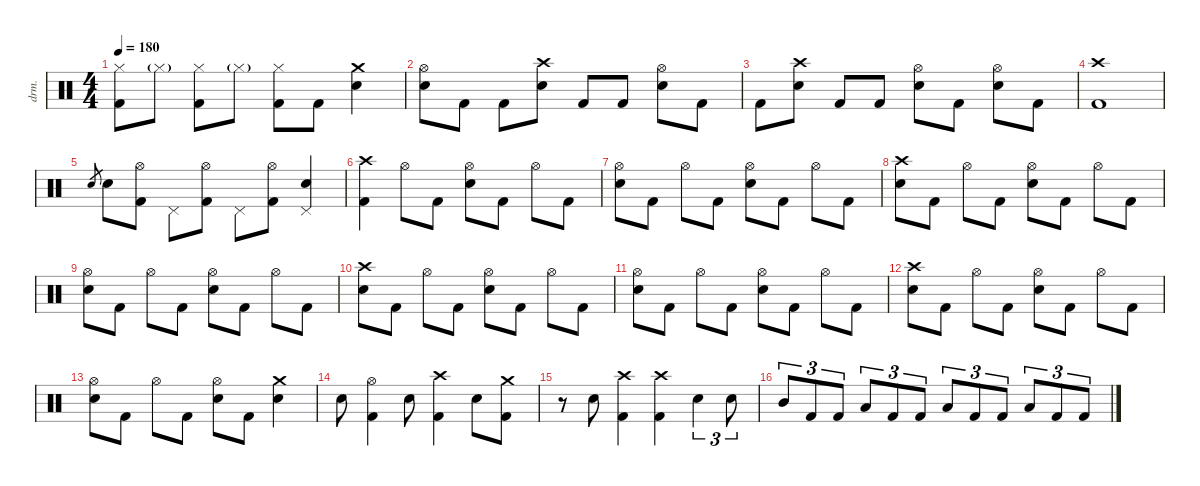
\defaultSystemsLayout 4
\hideDynamics
\bracketExtendMode nobrackets
\otherSystemsTrackNameOrientation horizontal
\track ("Drums: Ritsu Tainaka" "drm.") {instrument percussion}
\staff {score}
\articulation defaults
\ts (4 4)
\tempo 180
\clef neutral
\ks c
("Hi-Hat (closed)" "Kick (hit) 2").8{dy f beam Down} "Hi-Hat (closed)"{g}.8{dy mf beam Down} ("Hi-Hat (closed)" "Kick (hit) 2").8{dy f beam Down} "Hi-Hat (closed)"{g}.8{dy mf beam Down} ("Hi-Hat (closed)" "Kick (hit) 2").8{dy f beam Down} "Kick (hit) 2".8{beam Down} ("Crash medium (hit)" "Snare (hit) 2").4{beam Down} |
("Hi-Hat (open)" "Snare (hit) 2").8{beam Down} "Kick (hit) 2".8{beam Down} "Kick (hit) 2".8{beam Down} ("Crash high (hit)" "Snare (hit) 2").8{beam Down} "Kick (hit) 2".8{beam Up} "Kick (hit) 2".8{beam Up} ("Hi-Hat (open)" "Snare (hit) 2").8{beam Down} "Kick (hit) 2".8{beam Down} |
"Kick (hit) 2".8{beam Down} ("Crash high (hit)" "Snare (hit) 2").8{beam Down} "Kick (hit) 2".8{beam Up} "Kick (hit) 2".8{beam Up} ("Hi-Hat (open)" "Snare (hit) 2").8{beam Down} "Kick (hit) 2".8{beam Down} ("Hi-Hat (open)" "Snare (hit) 2").8{beam Down} "Kick (hit) 2".8{beam Down} |
("Crash high (hit)" "Kick (hit) 2").1{beam Down} |
"Electric Snare (hit)".8{gr dy mf beam Up} "Snare (hit) 2".8{dy f beam Down} ("Hi-Hat (open)" "Kick (hit) 2").8{beam Down} "Pedal Hi-Hat (hit)".8{beam Down} ("Hi-Hat (open)" "Kick (hit) 2").8{beam Down} "Pedal Hi-Hat (hit)".8{beam Down} ("Hi-Hat (open)" "Kick (hit) 2").8{beam Down} ("Pedal Hi-Hat (hit)" "Snare (hit) 2").4{beam Up} |
("Crash high (hit)" "Kick (hit) 2").4{beam Down} "Hi-Hat (open)".8{beam Down} "Kick (hit) 2".8{beam Down} ("Hi-Hat (open)" "Snare (hit) 2").8{beam Down} "Kick (hit) 2".8{beam Down} "Hi-Hat (open)".8{beam Down} "Kick (hit) 2".8{beam Down} |
("Hi-Hat (open)" "Snare (hit) 2").8{beam Down} "Kick (hit) 2".8{beam Down} "Hi-Hat (open)".8{beam Down} "Kick (hit) 2".8{beam Down} ("Hi-Hat (open)" "Snare (hit) 2").8{beam Down} "Kick (hit) 2".8{beam Down} "Hi-Hat (open)".8{beam Down} "Kick (hit) 2".8{beam Down} |
("Crash high (hit)" "Snare (hit) 2").8{beam Down} "Kick (hit) 2".8{beam Down} "Hi-Hat (open)".8{beam Down} "Kick (hit) 2".8{beam Down} ("Hi-Hat (open)" "Snare (hit) 2").8{beam Down} "Kick (hit) 2".8{beam Down} "Hi-Hat (open)".8{beam Down} "Kick (hit) 2".8{beam Down} |
("Hi-Hat (open)" "Snare (hit) 2").8{beam Down} "Kick (hit) 2".8{beam Down} "Hi-Hat (open)".8{beam Down} "Kick (hit) 2".8{beam Down} ("Hi-Hat (open)" "Snare (hit) 2").8{beam Down} "Kick (hit) 2".8{beam Down} "Hi-Hat (open)".8{beam Down} "Kick (hit) 2".8{beam Down} |
("Crash high (hit)" "Snare (hit) 2").8{beam Down} "Kick (hit) 2".8{beam Down} "Hi-Hat (open)".8{beam Down} "Kick (hit) 2".8{beam Down} ("Hi-Hat (open)" "Snare (hit) 2").8{beam Down} "Kick (hit) 2".8{beam Down} "Hi-Hat (open)".8{beam Down} "Kick (hit) 2".8{beam Down} |
("Hi-Hat (open)" "Snare (hit) 2").8{beam Down} "Kick (hit) 2".8{beam Down} "Hi-Hat (open)".8{beam Down} "Kick (hit) 2".8{beam Down} ("Hi-Hat (open)" "Snare (hit) 2").8{beam Down} "Kick (hit) 2".8{beam Down} "Hi-Hat (open)".8{beam Down} "Kick (hit) 2".8{beam Down} |
("Crash high (hit)" "Snare (hit) 2").8{beam Down} "Kick (hit) 2".8{beam Down} "Hi-Hat (open)".8{beam Down} "Kick (hit) 2".8{beam Down} ("Hi-Hat (open)" "Snare (hit) 2").8{beam Down} "Kick (hit) 2".8{beam Down} "Hi-Hat (open)".8{beam Down} "Kick (hit) 2".8{beam Down} |
("Hi-Hat (open)" "Snare (hit) 2").8{beam Down} "Kick (hit) 2".8{beam Down} "Hi-Hat (open)".8{beam Down} "Kick (hit) 2".8{beam Down} ("Hi-Hat (open)" "Snare (hit) 2").8{beam Down} "Kick (hit) 2".8{beam Down} ("Crash medium (hit)" "Snare (hit) 2").4{beam Down} |
"Snare (hit) 2".8{beam Down} ("Hi-Hat (open)" "Kick (hit) 2").4{beam Down} "Snare (hit) 2".8{beam Down} ("Crash high (hit)" "Kick (hit) 2").4{beam Down} "Snare (hit) 2".8{beam Down} ("Crash medium (hit)" "Kick (hit) 2").8{beam Down} |
r.8{beam Down} "Snare (hit) 2".8{beam Down} ("Crash high (hit)" "Kick (hit) 2").4{beam Down} ("Crash high (hit)" "Kick (hit) 2").4{beam Down} "Snare (hit) 2".4{tu (3 2) beam Down} "Snare (hit) 2".8{tu (3 2) beam Down} |
"Mid Tom (hit)".8{tu (3 2) beam Up} "Kick (hit) 2".8{tu (3 2) beam Up} "Kick (hit) 2".8{tu (3 2) beam Up} "Low Tom (hit)".8{tu (3 2) beam Up} "Kick (hit) 2".8{tu (3 2) beam Up} "Kick (hit) 2".8{tu (3 2) beam Up} "Low Floor Tom (hit)".8{tu (3 2) beam Up} "Kick (hit) 2".8{tu (3 2) beam Up} "Kick (hit) 2".8{tu (3 2) beam Up} "Low Tom (hit)".8{tu (3 2) beam Up} "Kick (hit) 2".8{tu (3 2) beam Up} "Kick (hit) 2".8{tu (3 2) beam Up}
